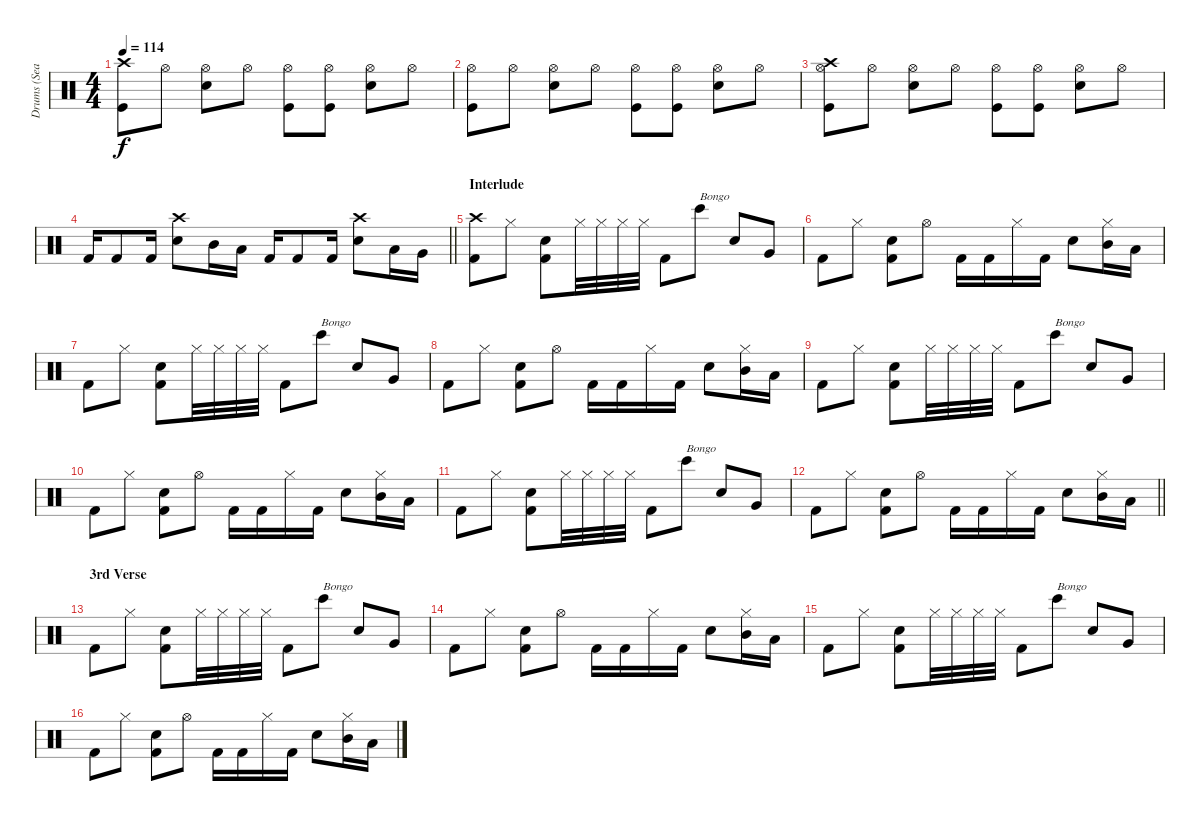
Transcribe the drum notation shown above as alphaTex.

\track ("Drums (Sean)" "Drums (Sea") {instrument percussion}
\staff {score}
\articulation defaults
\ts (4 4)
\tempo 114
\clef neutral
\ks c
("Kick (hit)" "Crash high (hit)").8{dy f} "Hi-Hat (open)".8 ("Snare (hit) 2" "Hi-Hat (open)").8 "Hi-Hat (open)".8 ("Kick (hit)" "Hi-Hat (open)").8 ("Kick (hit)" "Hi-Hat (open)").8 ("Snare (hit) 2" "Hi-Hat (open)").8 "Hi-Hat (open)".8 |
("Kick (hit)" "Hi-Hat (open)").8 "Hi-Hat (open)".8 ("Snare (hit) 2" "Hi-Hat (open)").8 "Hi-Hat (open)".8 ("Kick (hit)" "Hi-Hat (open)").8 ("Kick (hit)" "Hi-Hat (open)").8 ("Snare (hit) 2" "Hi-Hat (open)").8 "Hi-Hat (open)".8 |
("Kick (hit)" "Hi-Hat (open)" "Crash high (hit)").8 "Hi-Hat (open)".8 ("Snare (hit) 2" "Hi-Hat (open)").8 "Hi-Hat (open)".8 ("Kick (hit)" "Hi-Hat (open)").8 ("Kick (hit)" "Hi-Hat (open)").8 ("Snare (hit) 2" "Hi-Hat (open)").8 "Hi-Hat (open)".8 |
\barLineRight lightlight "Kick (hit) 2".16 "Kick (hit) 2".8 "Kick (hit) 2".16
("Crash high (hit)" "Snare (hit) 2").8 "Mid Tom (hit)".16 "Low Tom (hit)".16 "Kick (hit) 2".16 "Kick (hit) 2".8 "Kick (hit) 2".16 ("Crash high (hit)" "Snare (hit) 2").8 "Low Tom (hit)".16 "Very Low Tom (hit)".16 |
\section ("" "Interlude")
("Crash high (hit)" "Kick (hit) 2").8 "Hi-Hat (closed)".8 ("Snare (hit) 2" "Kick (hit) 2").8 "Hi-Hat (closed)".32 "Hi-Hat (closed)".32 "Hi-Hat (closed)".32 "Hi-Hat (closed)".32 "Kick (hit) 2".8 "Bongo High (hit)".8{txt "Bongo"} "Snare (hit) 2".8 "Very Low Tom (hit)".8 |
"Kick (hit) 2".8 "Hi-Hat (closed)".8 ("Snare (hit) 2" "Kick (hit) 2").8 "Hi-Hat (open)".8 "Kick (hit) 2".16 "Kick (hit) 2".16 "Hi-Hat (closed)".16 "Kick (hit) 2".16 "Snare (hit) 2".8 ("Hi-Hat (closed)" "Mid Tom (hit)").16 "Low Tom (hit)".16 |
"Kick (hit) 2".8 "Hi-Hat (closed)".8 ("Snare (hit) 2" "Kick (hit) 2").8 "Hi-Hat (closed)".32 "Hi-Hat (closed)".32 "Hi-Hat (closed)".32 "Hi-Hat (closed)".32 "Kick (hit) 2".8 "Bongo High (hit)".8{txt "Bongo"} "Snare (hit) 2".8 "Very Low Tom (hit)".8 |
"Kick (hit) 2".8 "Hi-Hat (closed)".8 ("Snare (hit) 2" "Kick (hit) 2").8 "Hi-Hat (open)".8 "Kick (hit) 2".16 "Kick (hit) 2".16 "Hi-Hat (closed)".16 "Kick (hit) 2".16 "Snare (hit) 2".8 ("Hi-Hat (closed)" "Mid Tom (hit)").16 "Low Tom (hit)".16 |
"Kick (hit) 2".8 "Hi-Hat (closed)".8 ("Snare (hit) 2" "Kick (hit) 2").8 "Hi-Hat (closed)".32 "Hi-Hat (closed)".32 "Hi-Hat (closed)".32 "Hi-Hat (closed)".32 "Kick (hit) 2".8 "Bongo High (hit)".8{txt "Bongo"} "Snare (hit) 2".8 "Very Low Tom (hit)".8 |
"Kick (hit) 2".8 "Hi-Hat (closed)".8 ("Snare (hit) 2" "Kick (hit) 2").8 "Hi-Hat (open)".8 "Kick (hit) 2".16 "Kick (hit) 2".16 "Hi-Hat (closed)".16 "Kick (hit) 2".16 "Snare (hit) 2".8 ("Hi-Hat (closed)" "Mid Tom (hit)").16 "Low Tom (hit)".16 |
"Kick (hit) 2".8 "Hi-Hat (closed)".8 ("Snare (hit) 2" "Kick (hit) 2").8 "Hi-Hat (closed)".32 "Hi-Hat (closed)".32 "Hi-Hat (closed)".32 "Hi-Hat (closed)".32 "Kick (hit) 2".8 "Bongo High (hit)".8{txt "Bongo"} "Snare (hit) 2".8 "Very Low Tom (hit)".8 |
\barLineRight lightlight "Kick (hit) 2".8 "Hi-Hat (closed)".8
("Snare (hit) 2" "Kick (hit) 2").8 "Hi-Hat (open)".8 "Kick (hit) 2".16 "Kick (hit) 2".16 "Hi-Hat (closed)".16 "Kick (hit) 2".16 "Snare (hit) 2".8 ("Hi-Hat (closed)" "Mid Tom (hit)").16 "Low Tom (hit)".16 |
\section ("" "3rd Verse")
"Kick (hit) 2".8 "Hi-Hat (closed)".8 ("Snare (hit) 2" "Kick (hit) 2").8 "Hi-Hat (closed)".32 "Hi-Hat (closed)".32 "Hi-Hat (closed)".32 "Hi-Hat (closed)".32 "Kick (hit) 2".8 "Bongo High (hit)".8{txt "Bongo"} "Snare (hit) 2".8 "Very Low Tom (hit)".8 |
"Kick (hit) 2".8 "Hi-Hat (closed)".8 ("Snare (hit) 2" "Kick (hit) 2").8 "Hi-Hat (open)".8 "Kick (hit) 2".16 "Kick (hit) 2".16 "Hi-Hat (closed)".16 "Kick (hit) 2".16 "Snare (hit) 2".8 ("Hi-Hat (closed)" "Mid Tom (hit)").16 "Low Tom (hit)".16 |
"Kick (hit) 2".8 "Hi-Hat (closed)".8 ("Snare (hit) 2" "Kick (hit) 2").8 "Hi-Hat (closed)".32 "Hi-Hat (closed)".32 "Hi-Hat (closed)".32 "Hi-Hat (closed)".32 "Kick (hit) 2".8 "Bongo High (hit)".8{txt "Bongo"} "Snare (hit) 2".8 "Very Low Tom (hit)".8 |
"Kick (hit) 2".8 "Hi-Hat (closed)".8 ("Snare (hit) 2" "Kick (hit) 2").8 "Hi-Hat (open)".8 "Kick (hit) 2".16 "Kick (hit) 2".16 "Hi-Hat (closed)".16 "Kick (hit) 2".16 "Snare (hit) 2".8 ("Hi-Hat (closed)" "Mid Tom (hit)").16 "Low Tom (hit)".16
